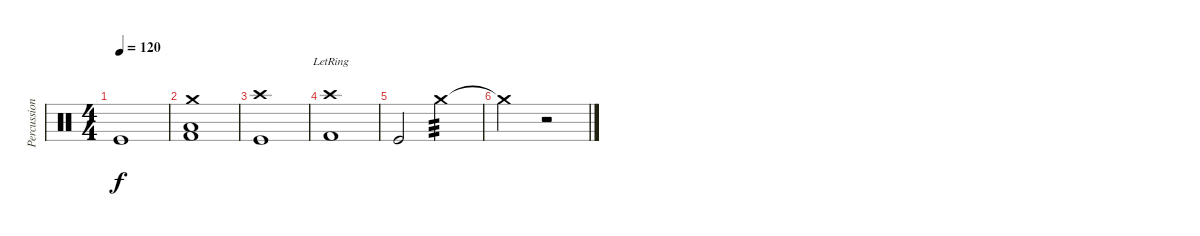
\track ("Percussion" "Percussion") {instrument percussion}
\staff {score}
\articulation defaults
\ts (4 4)
\tempo 120
\clef neutral
\ks c "Kick (hit)".1{dy f}
|
("Kick (hit) 2" "Crash medium (hit)" "Low Floor Tom (hit)").1 |
("Kick (hit)" "Crash high (hit)").1 |
("Kick (hit) 2" "Crash high (hit)"{lr}).1 |
"Kick (hit)".2 "Crash medium (hit)".2{tp 3} |
"Crash medium (hit)"{t}.2 r.2
